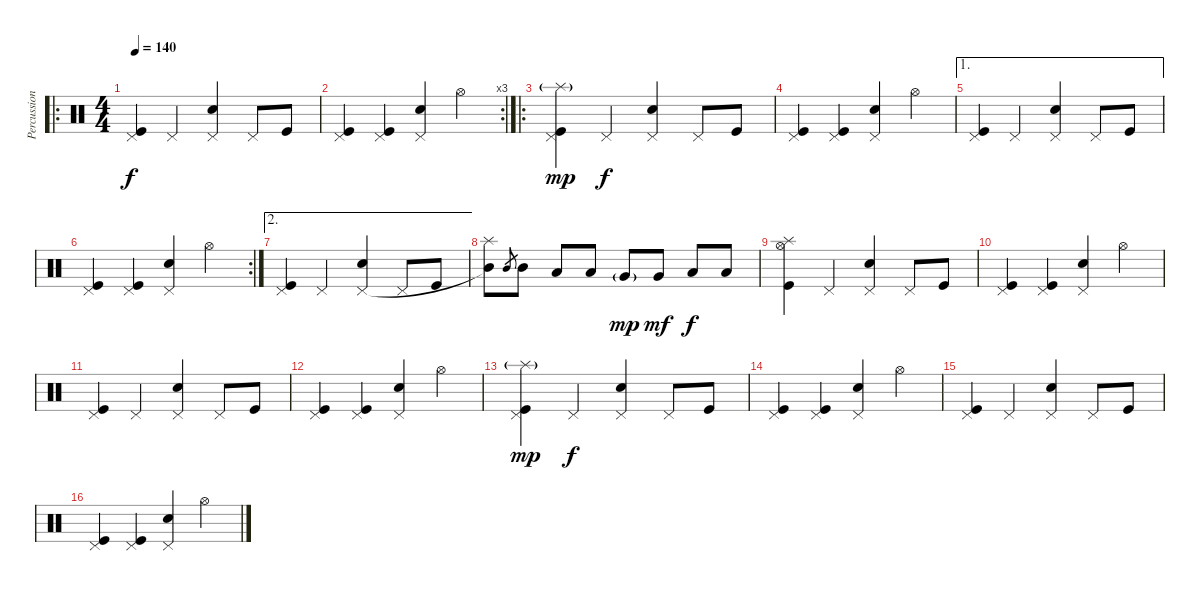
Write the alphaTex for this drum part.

\track ("Percussion" "Percussion") {instrument percussion}
\staff {score}
\articulation defaults
\ro
\ts (4 4)
\tempo 140
\clef neutral
\ks c
("Kick (hit)" "Pedal Hi-Hat (hit)").4{dy f} "Pedal Hi-Hat (hit)".4 ("Electric Snare (hit)" "Pedal Hi-Hat (hit)").4 "Pedal Hi-Hat (hit)".8 "Kick (hit)".8 |
\rc 3
("Kick (hit)" "Pedal Hi-Hat (hit)").4 ("Kick (hit)" "Pedal Hi-Hat (hit)").4 ("Electric Snare (hit)" "Pedal Hi-Hat (hit)").4 "Hi-Hat (open)".4 |
\ro
("Splash (hit)"{g} "Kick (hit)" "Pedal Hi-Hat (hit)").4{dy mp} "Pedal Hi-Hat (hit)".4{dy f} ("Electric Snare (hit)" "Pedal Hi-Hat (hit)").4 "Pedal Hi-Hat (hit)".8 "Kick (hit)".8 |
("Kick (hit)" "Pedal Hi-Hat (hit)").4 ("Kick (hit)" "Pedal Hi-Hat (hit)").4 ("Electric Snare (hit)" "Pedal Hi-Hat (hit)").4 "Hi-Hat (open)".4 |
\ae 1
("Kick (hit)" "Pedal Hi-Hat (hit)").4 "Pedal Hi-Hat (hit)".4 ("Electric Snare (hit)" "Pedal Hi-Hat (hit)").4 "Pedal Hi-Hat (hit)".8 "Kick (hit)".8 |
\rc 2
("Kick (hit)" "Pedal Hi-Hat (hit)").4 ("Kick (hit)" "Pedal Hi-Hat (hit)").4 ("Electric Snare (hit)" "Pedal Hi-Hat (hit)").4 "Hi-Hat (open)".4 |
\ae 2
("Kick (hit)" "Pedal Hi-Hat (hit)").4 "Pedal Hi-Hat (hit)".4 ("Electric Snare (hit)" "Pedal Hi-Hat (hit)").4 "Pedal Hi-Hat (hit)".8 "Kick (hit)".8 |
("Splash (hit)" "Mid Tom (hit)"{t}).8 "Mid Tom (hit)".8{gr} "Mid Tom (hit)".8 "Low Tom (hit)".8 "Low Tom (hit)".8 "Very Low Tom (hit)"{g}.8{dy mp} "Very Low Tom (hit)".8{dy mf} "Low Floor Tom (hit)".8{dy f} "Low Floor Tom (hit)".8 |
("Splash (hit)" "Kick (hit)" "Hi-Hat (open)").4 "Pedal Hi-Hat (hit)".4 ("Electric Snare (hit)" "Pedal Hi-Hat (hit)").4 "Pedal Hi-Hat (hit)".8 "Kick (hit)".8 |
("Kick (hit)" "Pedal Hi-Hat (hit)").4 ("Kick (hit)" "Pedal Hi-Hat (hit)").4 ("Electric Snare (hit)" "Pedal Hi-Hat (hit)").4 "Hi-Hat (open)".4 |
("Kick (hit)" "Pedal Hi-Hat (hit)").4 "Pedal Hi-Hat (hit)".4 ("Electric Snare (hit)" "Pedal Hi-Hat (hit)").4 "Pedal Hi-Hat (hit)".8 "Kick (hit)".8 |
("Kick (hit)" "Pedal Hi-Hat (hit)").4 ("Kick (hit)" "Pedal Hi-Hat (hit)").4 ("Electric Snare (hit)" "Pedal Hi-Hat (hit)").4 "Hi-Hat (open)".4 |
("Splash (hit)"{g} "Kick (hit)" "Pedal Hi-Hat (hit)").4{dy mp} "Pedal Hi-Hat (hit)".4{dy f} ("Electric Snare (hit)" "Pedal Hi-Hat (hit)").4 "Pedal Hi-Hat (hit)".8 "Kick (hit)".8 |
("Kick (hit)" "Pedal Hi-Hat (hit)").4 ("Kick (hit)" "Pedal Hi-Hat (hit)").4 ("Electric Snare (hit)" "Pedal Hi-Hat (hit)").4 "Hi-Hat (open)".4 |
("Kick (hit)" "Pedal Hi-Hat (hit)").4 "Pedal Hi-Hat (hit)".4 ("Electric Snare (hit)" "Pedal Hi-Hat (hit)").4 "Pedal Hi-Hat (hit)".8 "Kick (hit)".8 |
("Kick (hit)" "Pedal Hi-Hat (hit)").4 ("Kick (hit)" "Pedal Hi-Hat (hit)").4 ("Electric Snare (hit)" "Pedal Hi-Hat (hit)").4 "Hi-Hat (open)".4
